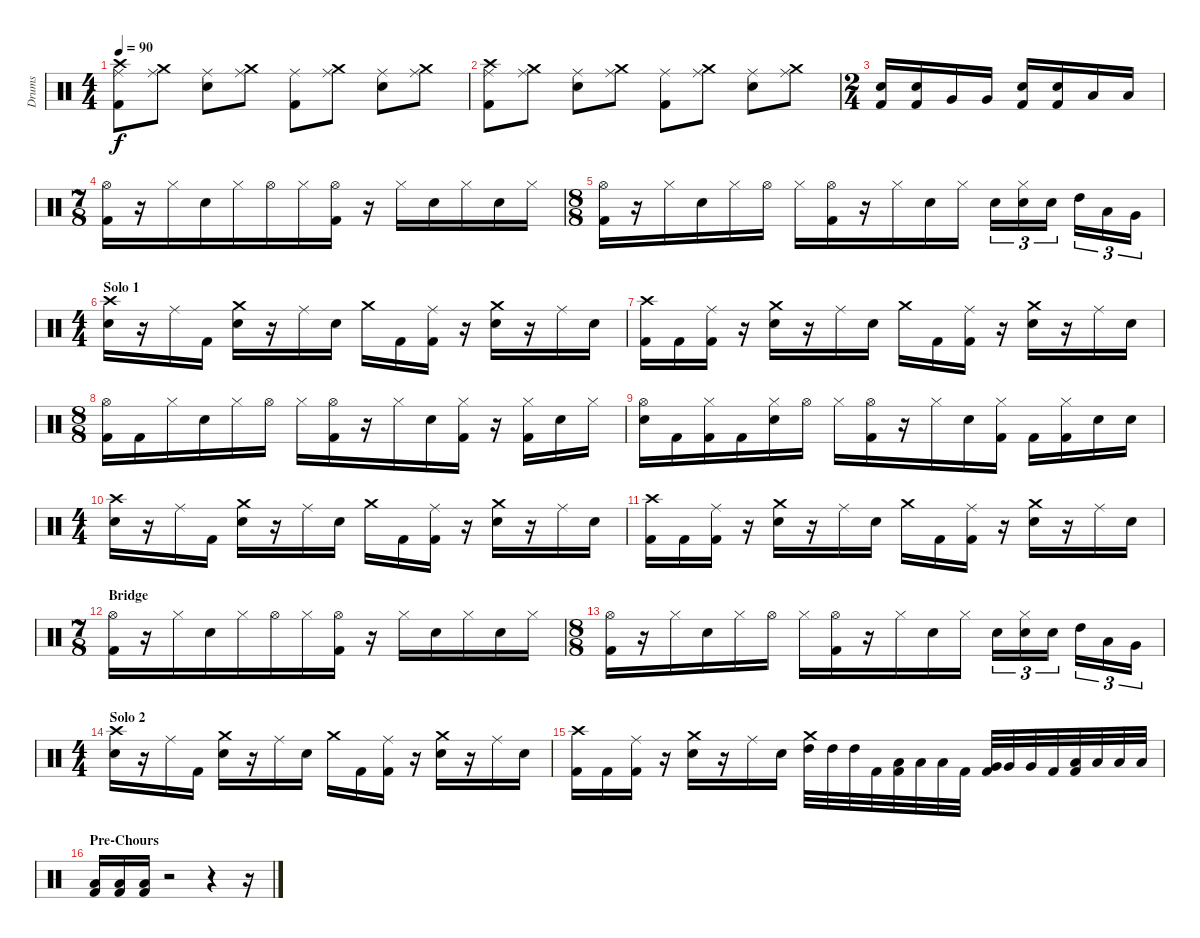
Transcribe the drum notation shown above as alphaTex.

\track ("Drums" "Drums") {instrument percussion}
\staff {score}
\articulation defaults
\ts (4 4)
\tempo 90
\clef neutral
\ks c
("Crash high (hit)" "Ride (middle)" "Kick (hit) 2").8{dy f} ("Crash medium (hit)" "Ride (middle)").8 ("Ride (middle)" "Snare (hit) 2").8 ("Crash medium (hit)" "Ride (middle)").8 ("Ride (middle)" "Kick (hit) 2").8 ("Crash medium (hit)" "Ride (middle)").8 ("Ride (middle)" "Snare (hit) 2").8 ("Crash medium (hit)" "Ride (middle)").8 |
("Crash high (hit)" "Ride (middle)" "Kick (hit) 2").8 ("Crash medium (hit)" "Ride (middle)").8 ("Ride (middle)" "Snare (hit) 2").8 ("Crash medium (hit)" "Ride (middle)").8 ("Ride (middle)" "Kick (hit) 2").8 ("Crash medium (hit)" "Ride (middle)").8 ("Ride (middle)" "Snare (hit) 2").8 ("Crash medium (hit)" "Ride (middle)").8 |
\ts (2 4)
("Snare (hit) 2" "Kick (hit) 2").16 ("Snare (hit) 2" "Kick (hit) 2").16 "Very Low Tom (hit)".16 "Very Low Tom (hit)".16 ("Snare (hit) 2" "Kick (hit) 2").16 ("Snare (hit) 2" "Kick (hit) 2").16 "Low Floor Tom (hit)".16 "Low Floor Tom (hit)".16 |
\ts (7 8)
("Hi-Hat (open)" "Kick (hit) 2").16 r.16 "Hi-Hat (closed)".16 "Snare (hit) 2".16 "Hi-Hat (closed)".16 "Hi-Hat (open)".16 "Hi-Hat (closed)".16 ("Hi-Hat (open)" "Kick (hit) 2").16 r.16 "Hi-Hat (closed)".16 "Snare (hit) 2".16 "Hi-Hat (closed)".16 "Snare (hit) 2".16 "Hi-Hat (closed)".16 |
\ts (8 8)
("Hi-Hat (open)" "Kick (hit) 2").16 r.16 "Hi-Hat (closed)".16 "Snare (hit) 2".16 "Hi-Hat (closed)".16 "Hi-Hat (open)".16 "Hi-Hat (closed)".16 ("Hi-Hat (open)" "Kick (hit) 2").16 r.16 "Hi-Hat (closed)".16 "Snare (hit) 2".16 "Hi-Hat (closed)".16 "Snare (hit) 2".16{tu (3 2)} ("Hi-Hat (closed)" "Snare (hit) 2").16{tu (3 2)} "Snare (hit) 2".16{tu (3 2)} "High Tom (hit)".16{tu (3 2)} "Low Tom (hit)".16{tu (3 2)} "Very Low Tom (hit)".16{tu (3 2)} |
\ts (4 4)
\section ("" "Solo 1")
("Crash high (hit)" "Snare (hit) 2").16 r.16 "Ride (middle)".16 "Kick (hit) 2".16 ("Crash medium (hit)" "Snare (hit) 2").16 r.16 "Ride (middle)".16 "Snare (hit) 2".16 "Crash medium (hit)".16 "Kick (hit) 2".16 ("Ride (middle)" "Kick (hit) 2").16 r.16 ("Crash medium (hit)" "Snare (hit) 2").16 r.16 "Ride (middle)".16 "Snare (hit) 2".16 |
("Crash high (hit)" "Kick (hit) 2").16 "Kick (hit) 2".16 ("Ride (middle)" "Kick (hit) 2").16 r.16 ("Crash medium (hit)" "Snare (hit) 2").16 r.16 "Ride (middle)".16 "Snare (hit) 2".16 "Crash medium (hit)".16 "Kick (hit) 2".16 ("Ride (middle)" "Kick (hit) 2").16 r.16 ("Crash medium (hit)" "Snare (hit) 2").16 r.16 "Ride (middle)".16 "Snare (hit) 2".16 |
\ts (8 8)
("Hi-Hat (open)" "Kick (hit) 2").16 "Kick (hit) 2".16 "Hi-Hat (closed)".16 "Snare (hit) 2".16 "Hi-Hat (closed)".16 "Hi-Hat (open)".16 "Hi-Hat (closed)".16 ("Hi-Hat (open)" "Kick (hit) 2").16 r.16 "Hi-Hat (closed)".16 "Snare (hit) 2".16 ("Hi-Hat (closed)" "Kick (hit) 2").16 r.16 ("Hi-Hat (closed)" "Kick (hit) 2").16 "Snare (hit) 2".16 "Hi-Hat (closed)".16 |
("Hi-Hat (open)" "Snare (hit) 2").16 "Kick (hit) 2".16 ("Hi-Hat (closed)" "Kick (hit) 2").16 "Kick (hit) 2".16 ("Hi-Hat (closed)" "Snare (hit) 2").16 "Hi-Hat (open)".16 "Hi-Hat (closed)".16 ("Hi-Hat (open)" "Kick (hit) 2").16 r.16 "Hi-Hat (closed)".16 "Snare (hit) 2".16 ("Hi-Hat (closed)" "Kick (hit) 2").16 "Kick (hit) 2".16 ("Hi-Hat (closed)" "Kick (hit) 2").16 "Snare (hit) 2".16 "Snare (hit) 2".16 |
\ts (4 4)
("Crash high (hit)" "Snare (hit) 2").16 r.16 "Ride (middle)".16 "Kick (hit) 2".16 ("Crash medium (hit)" "Snare (hit) 2").16 r.16 "Ride (middle)".16 "Snare (hit) 2".16 "Crash medium (hit)".16 "Kick (hit) 2".16 ("Ride (middle)" "Kick (hit) 2").16 r.16 ("Crash medium (hit)" "Snare (hit) 2").16 r.16 "Ride (middle)".16 "Snare (hit) 2".16 |
("Crash high (hit)" "Kick (hit) 2").16 "Kick (hit) 2".16 ("Ride (middle)" "Kick (hit) 2").16 r.16 ("Crash medium (hit)" "Snare (hit) 2").16 r.16 "Ride (middle)".16 "Snare (hit) 2".16 "Crash medium (hit)".16 "Kick (hit) 2".16 ("Ride (middle)" "Kick (hit) 2").16 r.16 ("Crash medium (hit)" "Snare (hit) 2").16 r.16 "Ride (middle)".16 "Snare (hit) 2".16 |
\ts (7 8)
\section ("" "Bridge")
("Hi-Hat (open)" "Kick (hit) 2").16 r.16 "Hi-Hat (closed)".16 "Snare (hit) 2".16 "Hi-Hat (closed)".16 "Hi-Hat (open)".16 "Hi-Hat (closed)".16 ("Hi-Hat (open)" "Kick (hit) 2").16 r.16 "Hi-Hat (closed)".16 "Snare (hit) 2".16 "Hi-Hat (closed)".16 "Snare (hit) 2".16 "Hi-Hat (closed)".16 |
\ts (8 8)
("Hi-Hat (open)" "Kick (hit) 2").16 r.16 "Hi-Hat (closed)".16 "Snare (hit) 2".16 "Hi-Hat (closed)".16 "Hi-Hat (open)".16 "Hi-Hat (closed)".16 ("Hi-Hat (open)" "Kick (hit) 2").16 r.16 "Hi-Hat (closed)".16 "Snare (hit) 2".16 "Hi-Hat (closed)".16 "Snare (hit) 2".16{tu (3 2)} ("Hi-Hat (closed)" "Snare (hit) 2").16{tu (3 2)} "Snare (hit) 2".16{tu (3 2)} "High Tom (hit)".16{tu (3 2)} "Low Tom (hit)".16{tu (3 2)} "Very Low Tom (hit)".16{tu (3 2)} |
\ts (4 4)
\section ("" "Solo 2")
("Crash high (hit)" "Snare (hit) 2").16 r.16 "Ride (middle)".16 "Kick (hit) 2".16 ("Crash medium (hit)" "Snare (hit) 2").16 r.16 "Ride (middle)".16 "Snare (hit) 2".16 "Crash medium (hit)".16 "Kick (hit) 2".16 ("Ride (middle)" "Kick (hit) 2").16 r.16 ("Crash medium (hit)" "Snare (hit) 2").16 r.16 "Ride (middle)".16 "Snare (hit) 2".16 |
("Crash high (hit)" "Kick (hit) 2").16 "Kick (hit) 2".16 ("Ride (middle)" "Kick (hit) 2").16 r.16 ("Crash medium (hit)" "Snare (hit) 2").16 r.16 "Ride (middle)".16 "Snare (hit) 2".16 ("Crash medium (hit)" "High Tom (hit)").32 "High Tom (hit)".32 "High Tom (hit)".32 "Kick (hit) 2".32 ("Low Tom (hit)" "Kick (hit) 2").32 "Low Tom (hit)".32 "Low Tom (hit)".32 "Kick (hit) 2".32 ("Very Low Tom (hit)" "Kick (hit) 2").32 "Very Low Tom (hit)".32 "Very Low Tom (hit)".32 "Kick (hit) 2".32 ("Low Floor Tom (hit)" "Kick (hit) 2").32 "Low Floor Tom (hit)".32 "Low Floor Tom (hit)".32 "Low Floor Tom (hit)".32 |
\section ("" "Pre-Chours")
("Low Tom (hit)" "Kick (hit) 2").16 ("Low Tom (hit)" "Kick (hit) 2").16 ("Low Tom (hit)" "Kick (hit) 2").16 r.2 r.4 r.16
